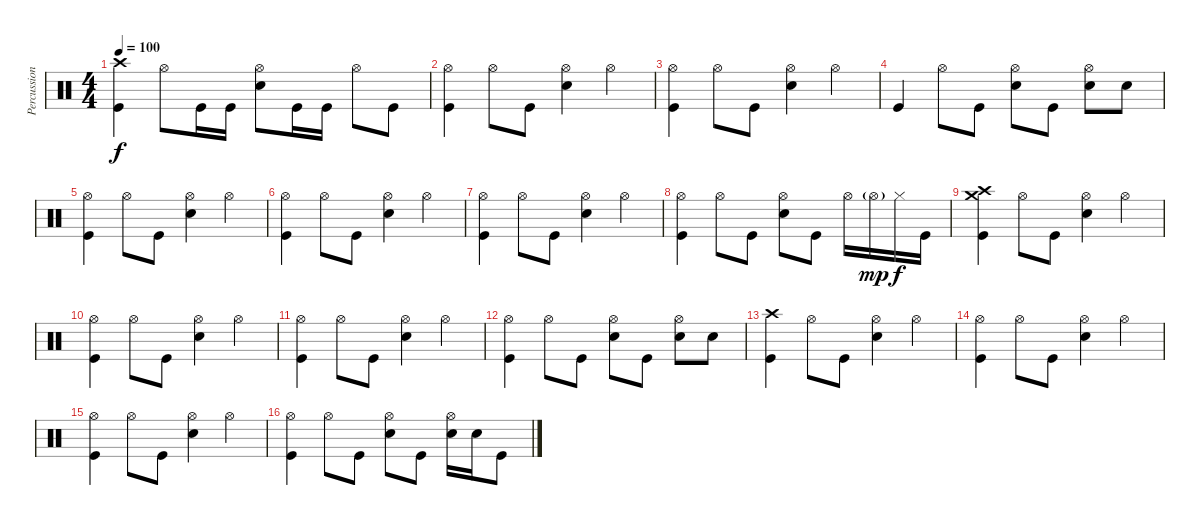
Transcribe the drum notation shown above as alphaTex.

\track ("Percussion" "Percussion") {instrument percussion}
\staff {score}
\articulation defaults
\ts (4 4)
\tempo 100
\clef neutral
\ks c
("Crash high (hit)" "Kick (hit)").4{dy f} "Hi-Hat (open)".8 "Kick (hit)".16 "Kick (hit)".16 ("Hi-Hat (open)" "Snare (hit) 2").8 "Kick (hit)".16 "Kick (hit)".16 "Hi-Hat (open)".8 "Kick (hit)".8 |
("Hi-Hat (open)" "Kick (hit)").4 "Hi-Hat (open)".8 "Kick (hit)".8 ("Hi-Hat (open)" "Snare (hit) 2").4 "Hi-Hat (open)".4 |
("Hi-Hat (open)" "Kick (hit)").4 "Hi-Hat (open)".8 "Kick (hit)".8 ("Hi-Hat (open)" "Snare (hit) 2").4 "Hi-Hat (open)".4 |
"Kick (hit)".4 "Hi-Hat (open)".8 "Kick (hit)".8 ("Hi-Hat (open)" "Snare (hit) 2").8 "Kick (hit)".8 ("Hi-Hat (open)" "Snare (hit) 2").8 "Snare (hit) 2".8 |
("Hi-Hat (open)" "Kick (hit)").4 "Hi-Hat (open)".8 "Kick (hit)".8 ("Hi-Hat (open)" "Snare (hit) 2").4 "Hi-Hat (open)".4 |
("Hi-Hat (open)" "Kick (hit)").4 "Hi-Hat (open)".8 "Kick (hit)".8 ("Hi-Hat (open)" "Snare (hit) 2").4 "Hi-Hat (open)".4 |
("Hi-Hat (open)" "Kick (hit)").4 "Hi-Hat (open)".8 "Kick (hit)".8 ("Hi-Hat (open)" "Snare (hit) 2").4 "Hi-Hat (open)".4 |
("Hi-Hat (open)" "Kick (hit)").4 "Hi-Hat (open)".8 "Kick (hit)".8 ("Hi-Hat (open)" "Snare (hit) 2").8 "Kick (hit)".8 "Hi-Hat (open)".16 "Hi-Hat (open)"{g}.16{dy mp} "Hi-Hat (closed)".16{dy f} "Kick (hit)".16 |
("Crash high (hit)" "Crash medium (hit)" "Kick (hit)").4 "Hi-Hat (open)".8 "Kick (hit)".8 ("Hi-Hat (open)" "Snare (hit) 2").4 "Hi-Hat (open)".4 |
("Hi-Hat (open)" "Kick (hit)").4 "Hi-Hat (open)".8 "Kick (hit)".8 ("Hi-Hat (open)" "Snare (hit) 2").4 "Hi-Hat (open)".4 |
("Hi-Hat (open)" "Kick (hit)").4 "Hi-Hat (open)".8 "Kick (hit)".8 ("Hi-Hat (open)" "Snare (hit) 2").4 "Hi-Hat (open)".4 |
("Hi-Hat (open)" "Kick (hit)").4 "Hi-Hat (open)".8 "Kick (hit)".8 ("Hi-Hat (open)" "Snare (hit) 2").8 "Kick (hit)".8 ("Hi-Hat (open)" "Snare (hit) 2").8 "Snare (hit) 2".8 |
("Crash high (hit)" "Kick (hit)").4 "Hi-Hat (open)".8 "Kick (hit)".8 ("Hi-Hat (open)" "Snare (hit) 2").4 "Hi-Hat (open)".4 |
("Hi-Hat (open)" "Kick (hit)").4 "Hi-Hat (open)".8 "Kick (hit)".8 ("Hi-Hat (open)" "Snare (hit) 2").4 "Hi-Hat (open)".4 |
("Hi-Hat (open)" "Kick (hit)").4 "Hi-Hat (open)".8 "Kick (hit)".8 ("Hi-Hat (open)" "Snare (hit) 2").4 "Hi-Hat (open)".4 |
("Hi-Hat (open)" "Kick (hit)").4 "Hi-Hat (open)".8 "Kick (hit)".8 ("Hi-Hat (open)" "Snare (hit) 2").8 "Kick (hit)".8 ("Hi-Hat (open)" "Snare (hit) 2").16 "Snare (hit) 2".16 "Kick (hit)".8
